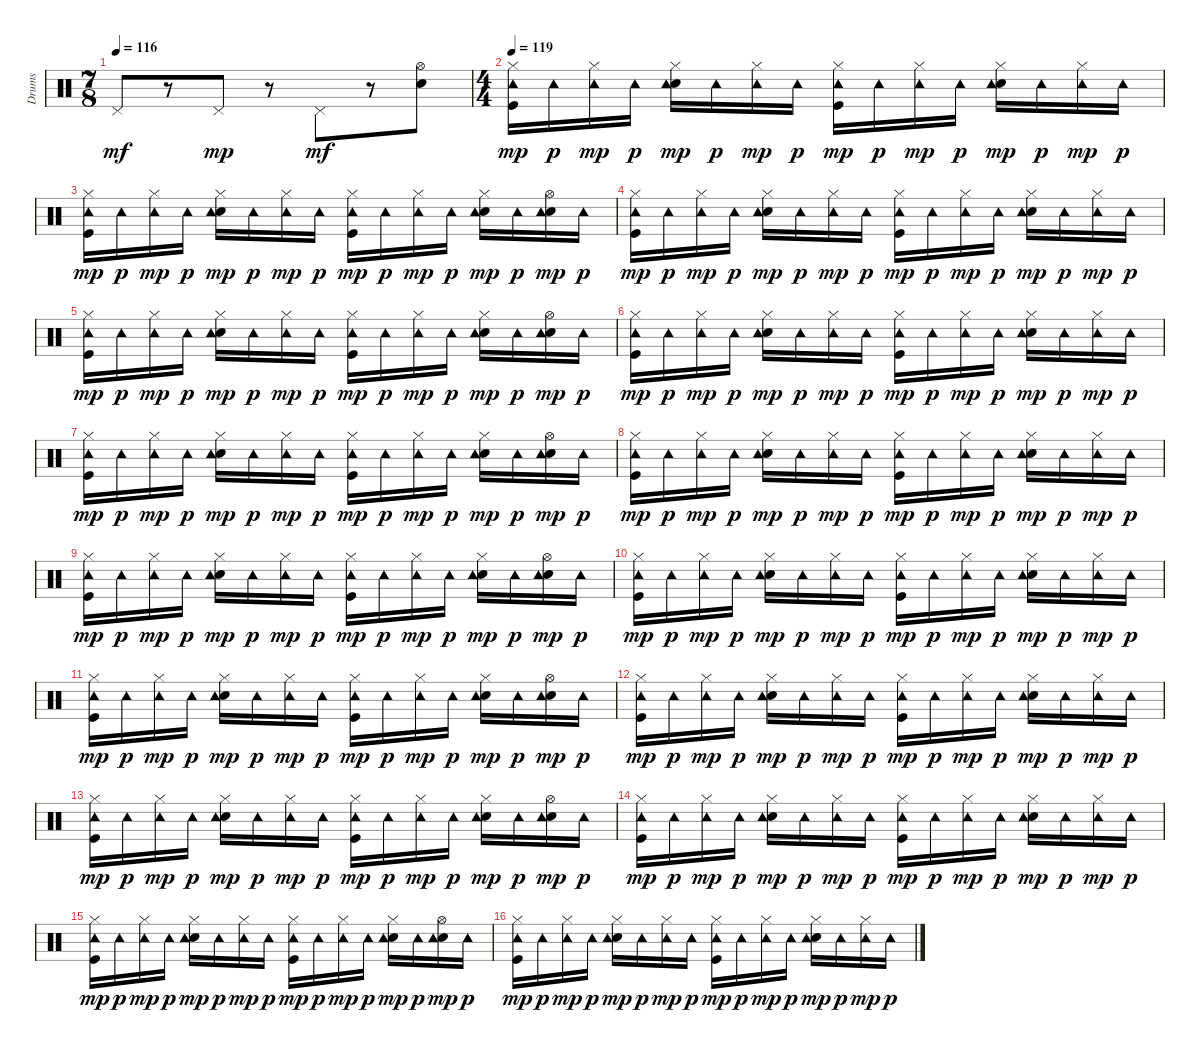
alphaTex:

\track ("Drums" "Drums") {instrument percussion}
\staff {score}
\articulation defaults
\ts (7 8)
\tempo 116
\clef neutral
\ks c "Pedal Hi-Hat (hit)".8{dy mf}
r.8 "Pedal Hi-Hat (hit)".8{dy mp} r.8 "Pedal Hi-Hat (hit)".8{dy mf} r.8 ("Electric Snare (hit)" "Hi-Hat (open)").8 |
\ts (4 4)
\tempo 119
("Kick (hit)" "Hi-Hat (closed)" "Tambourine (hit)").16{dy mp} "Tambourine (hit)".16{dy p} ("Hi-Hat (closed)" "Tambourine (hit)").16{dy mp} "Tambourine (hit)".16{dy p} ("Electric Snare (hit)" "Hi-Hat (closed)" "Tambourine (hit)").16{dy mp} "Tambourine (hit)".16{dy p} ("Hi-Hat (closed)" "Tambourine (hit)").16{dy mp} "Tambourine (hit)".16{dy p} ("Kick (hit)" "Hi-Hat (closed)" "Tambourine (hit)").16{dy mp} "Tambourine (hit)".16{dy p} ("Hi-Hat (closed)" "Tambourine (hit)").16{dy mp} "Tambourine (hit)".16{dy p} ("Electric Snare (hit)" "Hi-Hat (closed)" "Tambourine (hit)").16{dy mp} "Tambourine (hit)".16{dy p} ("Hi-Hat (closed)" "Tambourine (hit)").16{dy mp} "Tambourine (hit)".16{dy p} |
("Kick (hit)" "Hi-Hat (closed)" "Tambourine (hit)").16{dy mp} "Tambourine (hit)".16{dy p} ("Hi-Hat (closed)" "Tambourine (hit)").16{dy mp} "Tambourine (hit)".16{dy p} ("Electric Snare (hit)" "Hi-Hat (closed)" "Tambourine (hit)").16{dy mp} "Tambourine (hit)".16{dy p} ("Hi-Hat (closed)" "Tambourine (hit)").16{dy mp} "Tambourine (hit)".16{dy p} ("Kick (hit)" "Hi-Hat (closed)" "Tambourine (hit)").16{dy mp} "Tambourine (hit)".16{dy p} ("Hi-Hat (closed)" "Tambourine (hit)").16{dy mp} "Tambourine (hit)".16{dy p} ("Electric Snare (hit)" "Hi-Hat (closed)" "Tambourine (hit)").16{dy mp} "Tambourine (hit)".16{dy p} ("Electric Snare (hit)" "Hi-Hat (open)" "Tambourine (hit)").16{dy mp} "Tambourine (hit)".16{dy p} |
("Kick (hit)" "Hi-Hat (closed)" "Tambourine (hit)").16{dy mp} "Tambourine (hit)".16{dy p} ("Hi-Hat (closed)" "Tambourine (hit)").16{dy mp} "Tambourine (hit)".16{dy p} ("Electric Snare (hit)" "Hi-Hat (closed)" "Tambourine (hit)").16{dy mp} "Tambourine (hit)".16{dy p} ("Hi-Hat (closed)" "Tambourine (hit)").16{dy mp} "Tambourine (hit)".16{dy p} ("Kick (hit)" "Hi-Hat (closed)" "Tambourine (hit)").16{dy mp} "Tambourine (hit)".16{dy p} ("Hi-Hat (closed)" "Tambourine (hit)").16{dy mp} "Tambourine (hit)".16{dy p} ("Electric Snare (hit)" "Hi-Hat (closed)" "Tambourine (hit)").16{dy mp} "Tambourine (hit)".16{dy p} ("Hi-Hat (closed)" "Tambourine (hit)").16{dy mp} "Tambourine (hit)".16{dy p} |
("Kick (hit)" "Hi-Hat (closed)" "Tambourine (hit)").16{dy mp} "Tambourine (hit)".16{dy p} ("Hi-Hat (closed)" "Tambourine (hit)").16{dy mp} "Tambourine (hit)".16{dy p} ("Electric Snare (hit)" "Hi-Hat (closed)" "Tambourine (hit)").16{dy mp} "Tambourine (hit)".16{dy p} ("Hi-Hat (closed)" "Tambourine (hit)").16{dy mp} "Tambourine (hit)".16{dy p} ("Kick (hit)" "Hi-Hat (closed)" "Tambourine (hit)").16{dy mp} "Tambourine (hit)".16{dy p} ("Hi-Hat (closed)" "Tambourine (hit)").16{dy mp} "Tambourine (hit)".16{dy p} ("Electric Snare (hit)" "Hi-Hat (closed)" "Tambourine (hit)").16{dy mp} "Tambourine (hit)".16{dy p} ("Electric Snare (hit)" "Hi-Hat (open)" "Tambourine (hit)").16{dy mp} "Tambourine (hit)".16{dy p} |
("Kick (hit)" "Hi-Hat (closed)" "Tambourine (hit)").16{dy mp} "Tambourine (hit)".16{dy p} ("Hi-Hat (closed)" "Tambourine (hit)").16{dy mp} "Tambourine (hit)".16{dy p} ("Electric Snare (hit)" "Hi-Hat (closed)" "Tambourine (hit)").16{dy mp} "Tambourine (hit)".16{dy p} ("Hi-Hat (closed)" "Tambourine (hit)").16{dy mp} "Tambourine (hit)".16{dy p} ("Kick (hit)" "Hi-Hat (closed)" "Tambourine (hit)").16{dy mp} "Tambourine (hit)".16{dy p} ("Hi-Hat (closed)" "Tambourine (hit)").16{dy mp} "Tambourine (hit)".16{dy p} ("Electric Snare (hit)" "Hi-Hat (closed)" "Tambourine (hit)").16{dy mp} "Tambourine (hit)".16{dy p} ("Hi-Hat (closed)" "Tambourine (hit)").16{dy mp} "Tambourine (hit)".16{dy p} |
("Kick (hit)" "Hi-Hat (closed)" "Tambourine (hit)").16{dy mp} "Tambourine (hit)".16{dy p} ("Hi-Hat (closed)" "Tambourine (hit)").16{dy mp} "Tambourine (hit)".16{dy p} ("Electric Snare (hit)" "Hi-Hat (closed)" "Tambourine (hit)").16{dy mp} "Tambourine (hit)".16{dy p} ("Hi-Hat (closed)" "Tambourine (hit)").16{dy mp} "Tambourine (hit)".16{dy p} ("Kick (hit)" "Hi-Hat (closed)" "Tambourine (hit)").16{dy mp} "Tambourine (hit)".16{dy p} ("Hi-Hat (closed)" "Tambourine (hit)").16{dy mp} "Tambourine (hit)".16{dy p} ("Electric Snare (hit)" "Hi-Hat (closed)" "Tambourine (hit)").16{dy mp} "Tambourine (hit)".16{dy p} ("Electric Snare (hit)" "Hi-Hat (open)" "Tambourine (hit)").16{dy mp} "Tambourine (hit)".16{dy p} |
("Kick (hit)" "Hi-Hat (closed)" "Tambourine (hit)").16{dy mp} "Tambourine (hit)".16{dy p} ("Hi-Hat (closed)" "Tambourine (hit)").16{dy mp} "Tambourine (hit)".16{dy p} ("Electric Snare (hit)" "Hi-Hat (closed)" "Tambourine (hit)").16{dy mp} "Tambourine (hit)".16{dy p} ("Hi-Hat (closed)" "Tambourine (hit)").16{dy mp} "Tambourine (hit)".16{dy p} ("Kick (hit)" "Hi-Hat (closed)" "Tambourine (hit)").16{dy mp} "Tambourine (hit)".16{dy p} ("Hi-Hat (closed)" "Tambourine (hit)").16{dy mp} "Tambourine (hit)".16{dy p} ("Electric Snare (hit)" "Hi-Hat (closed)" "Tambourine (hit)").16{dy mp} "Tambourine (hit)".16{dy p} ("Hi-Hat (closed)" "Tambourine (hit)").16{dy mp} "Tambourine (hit)".16{dy p} |
("Kick (hit)" "Hi-Hat (closed)" "Tambourine (hit)").16{dy mp} "Tambourine (hit)".16{dy p} ("Hi-Hat (closed)" "Tambourine (hit)").16{dy mp} "Tambourine (hit)".16{dy p} ("Electric Snare (hit)" "Hi-Hat (closed)" "Tambourine (hit)").16{dy mp} "Tambourine (hit)".16{dy p} ("Hi-Hat (closed)" "Tambourine (hit)").16{dy mp} "Tambourine (hit)".16{dy p} ("Kick (hit)" "Hi-Hat (closed)" "Tambourine (hit)").16{dy mp} "Tambourine (hit)".16{dy p} ("Hi-Hat (closed)" "Tambourine (hit)").16{dy mp} "Tambourine (hit)".16{dy p} ("Electric Snare (hit)" "Hi-Hat (closed)" "Tambourine (hit)").16{dy mp} "Tambourine (hit)".16{dy p} ("Electric Snare (hit)" "Hi-Hat (open)" "Tambourine (hit)").16{dy mp} "Tambourine (hit)".16{dy p} |
("Kick (hit)" "Hi-Hat (closed)" "Tambourine (hit)").16{dy mp} "Tambourine (hit)".16{dy p} ("Hi-Hat (closed)" "Tambourine (hit)").16{dy mp} "Tambourine (hit)".16{dy p} ("Electric Snare (hit)" "Hi-Hat (closed)" "Tambourine (hit)").16{dy mp} "Tambourine (hit)".16{dy p} ("Hi-Hat (closed)" "Tambourine (hit)").16{dy mp} "Tambourine (hit)".16{dy p} ("Kick (hit)" "Hi-Hat (closed)" "Tambourine (hit)").16{dy mp} "Tambourine (hit)".16{dy p} ("Hi-Hat (closed)" "Tambourine (hit)").16{dy mp} "Tambourine (hit)".16{dy p} ("Electric Snare (hit)" "Hi-Hat (closed)" "Tambourine (hit)").16{dy mp} "Tambourine (hit)".16{dy p} ("Hi-Hat (closed)" "Tambourine (hit)").16{dy mp} "Tambourine (hit)".16{dy p} |
("Kick (hit)" "Hi-Hat (closed)" "Tambourine (hit)").16{dy mp} "Tambourine (hit)".16{dy p} ("Hi-Hat (closed)" "Tambourine (hit)").16{dy mp} "Tambourine (hit)".16{dy p} ("Electric Snare (hit)" "Hi-Hat (closed)" "Tambourine (hit)").16{dy mp} "Tambourine (hit)".16{dy p} ("Hi-Hat (closed)" "Tambourine (hit)").16{dy mp} "Tambourine (hit)".16{dy p} ("Kick (hit)" "Hi-Hat (closed)" "Tambourine (hit)").16{dy mp} "Tambourine (hit)".16{dy p} ("Hi-Hat (closed)" "Tambourine (hit)").16{dy mp} "Tambourine (hit)".16{dy p} ("Electric Snare (hit)" "Hi-Hat (closed)" "Tambourine (hit)").16{dy mp} "Tambourine (hit)".16{dy p} ("Electric Snare (hit)" "Hi-Hat (open)" "Tambourine (hit)").16{dy mp} "Tambourine (hit)".16{dy p} |
("Kick (hit)" "Hi-Hat (closed)" "Tambourine (hit)").16{dy mp} "Tambourine (hit)".16{dy p} ("Hi-Hat (closed)" "Tambourine (hit)").16{dy mp} "Tambourine (hit)".16{dy p} ("Electric Snare (hit)" "Hi-Hat (closed)" "Tambourine (hit)").16{dy mp} "Tambourine (hit)".16{dy p} ("Hi-Hat (closed)" "Tambourine (hit)").16{dy mp} "Tambourine (hit)".16{dy p} ("Kick (hit)" "Hi-Hat (closed)" "Tambourine (hit)").16{dy mp} "Tambourine (hit)".16{dy p} ("Hi-Hat (closed)" "Tambourine (hit)").16{dy mp} "Tambourine (hit)".16{dy p} ("Electric Snare (hit)" "Hi-Hat (closed)" "Tambourine (hit)").16{dy mp} "Tambourine (hit)".16{dy p} ("Hi-Hat (closed)" "Tambourine (hit)").16{dy mp} "Tambourine (hit)".16{dy p} |
("Kick (hit)" "Hi-Hat (closed)" "Tambourine (hit)").16{dy mp} "Tambourine (hit)".16{dy p} ("Hi-Hat (closed)" "Tambourine (hit)").16{dy mp} "Tambourine (hit)".16{dy p} ("Electric Snare (hit)" "Hi-Hat (closed)" "Tambourine (hit)").16{dy mp} "Tambourine (hit)".16{dy p} ("Hi-Hat (closed)" "Tambourine (hit)").16{dy mp} "Tambourine (hit)".16{dy p} ("Kick (hit)" "Hi-Hat (closed)" "Tambourine (hit)").16{dy mp} "Tambourine (hit)".16{dy p} ("Hi-Hat (closed)" "Tambourine (hit)").16{dy mp} "Tambourine (hit)".16{dy p} ("Electric Snare (hit)" "Hi-Hat (closed)" "Tambourine (hit)").16{dy mp} "Tambourine (hit)".16{dy p} ("Electric Snare (hit)" "Hi-Hat (open)" "Tambourine (hit)").16{dy mp} "Tambourine (hit)".16{dy p} |
("Kick (hit)" "Hi-Hat (closed)" "Tambourine (hit)").16{dy mp} "Tambourine (hit)".16{dy p} ("Hi-Hat (closed)" "Tambourine (hit)").16{dy mp} "Tambourine (hit)".16{dy p} ("Electric Snare (hit)" "Hi-Hat (closed)" "Tambourine (hit)").16{dy mp} "Tambourine (hit)".16{dy p} ("Hi-Hat (closed)" "Tambourine (hit)").16{dy mp} "Tambourine (hit)".16{dy p} ("Kick (hit)" "Hi-Hat (closed)" "Tambourine (hit)").16{dy mp} "Tambourine (hit)".16{dy p} ("Hi-Hat (closed)" "Tambourine (hit)").16{dy mp} "Tambourine (hit)".16{dy p} ("Electric Snare (hit)" "Hi-Hat (closed)" "Tambourine (hit)").16{dy mp} "Tambourine (hit)".16{dy p} ("Hi-Hat (closed)" "Tambourine (hit)").16{dy mp} "Tambourine (hit)".16{dy p} |
("Kick (hit)" "Hi-Hat (closed)" "Tambourine (hit)").16{dy mp} "Tambourine (hit)".16{dy p} ("Hi-Hat (closed)" "Tambourine (hit)").16{dy mp} "Tambourine (hit)".16{dy p} ("Electric Snare (hit)" "Hi-Hat (closed)" "Tambourine (hit)").16{dy mp} "Tambourine (hit)".16{dy p} ("Hi-Hat (closed)" "Tambourine (hit)").16{dy mp} "Tambourine (hit)".16{dy p} ("Kick (hit)" "Hi-Hat (closed)" "Tambourine (hit)").16{dy mp} "Tambourine (hit)".16{dy p} ("Hi-Hat (closed)" "Tambourine (hit)").16{dy mp} "Tambourine (hit)".16{dy p} ("Electric Snare (hit)" "Hi-Hat (closed)" "Tambourine (hit)").16{dy mp} "Tambourine (hit)".16{dy p} ("Electric Snare (hit)" "Hi-Hat (open)" "Tambourine (hit)").16{dy mp} "Tambourine (hit)".16{dy p} |
("Kick (hit)" "Hi-Hat (closed)" "Tambourine (hit)").16{dy mp} "Tambourine (hit)".16{dy p} ("Hi-Hat (closed)" "Tambourine (hit)").16{dy mp} "Tambourine (hit)".16{dy p} ("Electric Snare (hit)" "Hi-Hat (closed)" "Tambourine (hit)").16{dy mp} "Tambourine (hit)".16{dy p} ("Hi-Hat (closed)" "Tambourine (hit)").16{dy mp} "Tambourine (hit)".16{dy p} ("Kick (hit)" "Hi-Hat (closed)" "Tambourine (hit)").16{dy mp} "Tambourine (hit)".16{dy p} ("Hi-Hat (closed)" "Tambourine (hit)").16{dy mp} "Tambourine (hit)".16{dy p} ("Electric Snare (hit)" "Hi-Hat (closed)" "Tambourine (hit)").16{dy mp} "Tambourine (hit)".16{dy p} ("Hi-Hat (closed)" "Tambourine (hit)").16{dy mp} "Tambourine (hit)".16{dy p}
